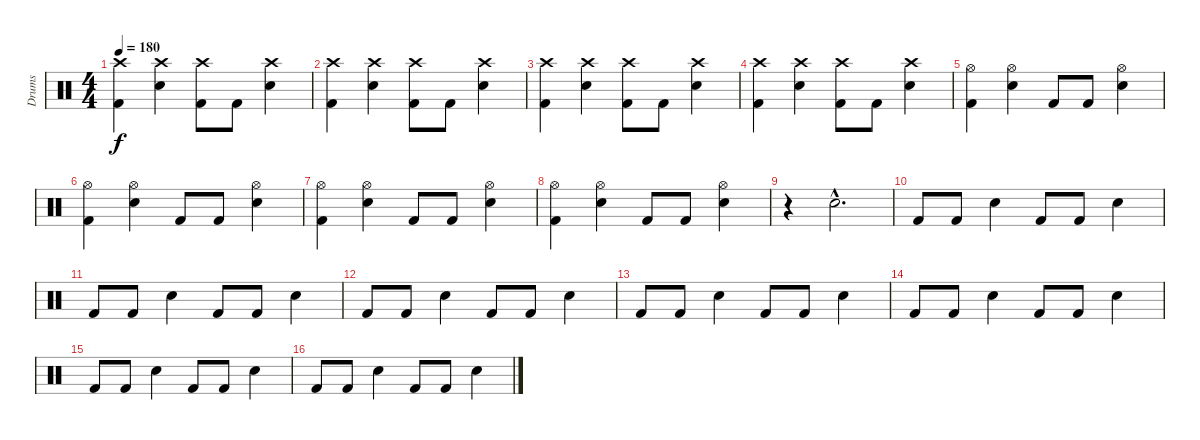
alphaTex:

\track ("Drums" "Drums") {instrument percussion}
\staff {score}
\articulation defaults
\ts (4 4)
\tempo 180
\clef neutral
\ks c
("Kick (hit) 2" "Crash high (hit)").4{dy f} ("Snare (hit) 2" "Crash high (hit)").4 ("Kick (hit) 2" "Crash high (hit)").8 "Kick (hit) 2".8 ("Snare (hit) 2" "Crash high (hit)").4 |
("Kick (hit) 2" "Crash high (hit)").4 ("Snare (hit) 2" "Crash high (hit)").4 ("Kick (hit) 2" "Crash high (hit)").8 "Kick (hit) 2".8 ("Snare (hit) 2" "Crash high (hit)").4 |
("Kick (hit) 2" "Crash high (hit)").4 ("Snare (hit) 2" "Crash high (hit)").4 ("Kick (hit) 2" "Crash high (hit)").8 "Kick (hit) 2".8 ("Snare (hit) 2" "Crash high (hit)").4 |
("Kick (hit) 2" "Crash high (hit)").4 ("Snare (hit) 2" "Crash high (hit)").4 ("Kick (hit) 2" "Crash high (hit)").8 "Kick (hit) 2".8 ("Snare (hit) 2" "Crash high (hit)").4 |
("Hi-Hat (open)" "Kick (hit) 2").4 ("Hi-Hat (open)" "Snare (hit) 2").4 "Kick (hit) 2".8 "Kick (hit) 2".8 ("Hi-Hat (open)" "Snare (hit) 2").4 |
("Hi-Hat (open)" "Kick (hit) 2").4 ("Hi-Hat (open)" "Snare (hit) 2").4 "Kick (hit) 2".8 "Kick (hit) 2".8 ("Hi-Hat (open)" "Snare (hit) 2").4 |
("Hi-Hat (open)" "Kick (hit) 2").4 ("Hi-Hat (open)" "Snare (hit) 2").4 "Kick (hit) 2".8 "Kick (hit) 2".8 ("Hi-Hat (open)" "Snare (hit) 2").4 |
("Hi-Hat (open)" "Kick (hit) 2").4 ("Hi-Hat (open)" "Snare (hit) 2").4 "Kick (hit) 2".8 "Kick (hit) 2".8 ("Hi-Hat (open)" "Snare (hit) 2").4 |
r.4 "Snare (hit) 2"{hac}.2{d} |
"Kick (hit) 2".8 "Kick (hit) 2".8 "Snare (hit) 2".4 "Kick (hit) 2".8 "Kick (hit) 2".8 "Snare (hit) 2".4 |
"Kick (hit) 2".8 "Kick (hit) 2".8 "Snare (hit) 2".4 "Kick (hit) 2".8 "Kick (hit) 2".8 "Snare (hit) 2".4 |
"Kick (hit) 2".8 "Kick (hit) 2".8 "Snare (hit) 2".4 "Kick (hit) 2".8 "Kick (hit) 2".8 "Snare (hit) 2".4 |
"Kick (hit) 2".8 "Kick (hit) 2".8 "Snare (hit) 2".4 "Kick (hit) 2".8 "Kick (hit) 2".8 "Snare (hit) 2".4 |
"Kick (hit) 2".8 "Kick (hit) 2".8 "Snare (hit) 2".4 "Kick (hit) 2".8 "Kick (hit) 2".8 "Snare (hit) 2".4 |
"Kick (hit) 2".8 "Kick (hit) 2".8 "Snare (hit) 2".4 "Kick (hit) 2".8 "Kick (hit) 2".8 "Snare (hit) 2".4 |
"Kick (hit) 2".8 "Kick (hit) 2".8 "Snare (hit) 2".4 "Kick (hit) 2".8 "Kick (hit) 2".8 "Snare (hit) 2".4
